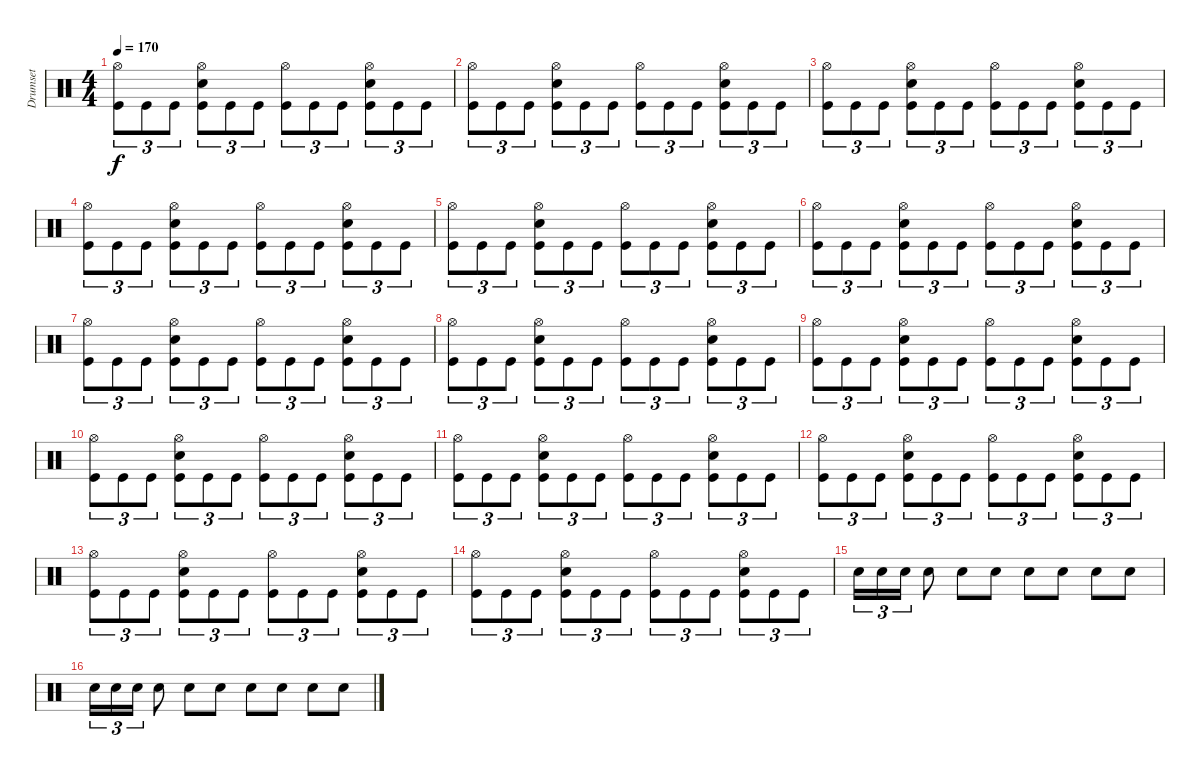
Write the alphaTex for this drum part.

\track ("Drumset" "Drumset") {instrument percussion}
\staff {score}
\articulation defaults
\ts (4 4)
\tempo 170
\clef neutral
\ks c
("Hi-Hat (open)" "Kick (hit)").8{tu (3 2) dy f} "Kick (hit)".8{tu (3 2)} "Kick (hit)".8{tu (3 2)} ("Hi-Hat (open)" "Snare (hit) 2" "Kick (hit)").8{tu (3 2)} "Kick (hit)".8{tu (3 2)} "Kick (hit)".8{tu (3 2)} ("Hi-Hat (open)" "Kick (hit)").8{tu (3 2)} "Kick (hit)".8{tu (3 2)} "Kick (hit)".8{tu (3 2)} ("Hi-Hat (open)" "Snare (hit) 2" "Kick (hit)").8{tu (3 2)} "Kick (hit)".8{tu (3 2)} "Kick (hit)".8{tu (3 2)} |
("Hi-Hat (open)" "Kick (hit)").8{tu (3 2)} "Kick (hit)".8{tu (3 2)} "Kick (hit)".8{tu (3 2)} ("Hi-Hat (open)" "Snare (hit) 2" "Kick (hit)").8{tu (3 2)} "Kick (hit)".8{tu (3 2)} "Kick (hit)".8{tu (3 2)} ("Hi-Hat (open)" "Kick (hit)").8{tu (3 2)} "Kick (hit)".8{tu (3 2)} "Kick (hit)".8{tu (3 2)} ("Hi-Hat (open)" "Snare (hit) 2" "Kick (hit)").8{tu (3 2)} "Kick (hit)".8{tu (3 2)} "Kick (hit)".8{tu (3 2)} |
("Hi-Hat (open)" "Kick (hit)").8{tu (3 2)} "Kick (hit)".8{tu (3 2)} "Kick (hit)".8{tu (3 2)} ("Hi-Hat (open)" "Snare (hit) 2" "Kick (hit)").8{tu (3 2)} "Kick (hit)".8{tu (3 2)} "Kick (hit)".8{tu (3 2)} ("Hi-Hat (open)" "Kick (hit)").8{tu (3 2)} "Kick (hit)".8{tu (3 2)} "Kick (hit)".8{tu (3 2)} ("Hi-Hat (open)" "Snare (hit) 2" "Kick (hit)").8{tu (3 2)} "Kick (hit)".8{tu (3 2)} "Kick (hit)".8{tu (3 2)} |
("Hi-Hat (open)" "Kick (hit)").8{tu (3 2)} "Kick (hit)".8{tu (3 2)} "Kick (hit)".8{tu (3 2)} ("Hi-Hat (open)" "Snare (hit) 2" "Kick (hit)").8{tu (3 2)} "Kick (hit)".8{tu (3 2)} "Kick (hit)".8{tu (3 2)} ("Hi-Hat (open)" "Kick (hit)").8{tu (3 2)} "Kick (hit)".8{tu (3 2)} "Kick (hit)".8{tu (3 2)} ("Hi-Hat (open)" "Snare (hit) 2" "Kick (hit)").8{tu (3 2)} "Kick (hit)".8{tu (3 2)} "Kick (hit)".8{tu (3 2)} |
("Hi-Hat (open)" "Kick (hit)").8{tu (3 2)} "Kick (hit)".8{tu (3 2)} "Kick (hit)".8{tu (3 2)} ("Hi-Hat (open)" "Snare (hit) 2" "Kick (hit)").8{tu (3 2)} "Kick (hit)".8{tu (3 2)} "Kick (hit)".8{tu (3 2)} ("Hi-Hat (open)" "Kick (hit)").8{tu (3 2)} "Kick (hit)".8{tu (3 2)} "Kick (hit)".8{tu (3 2)} ("Hi-Hat (open)" "Snare (hit) 2" "Kick (hit)").8{tu (3 2)} "Kick (hit)".8{tu (3 2)} "Kick (hit)".8{tu (3 2)} |
("Hi-Hat (open)" "Kick (hit)").8{tu (3 2)} "Kick (hit)".8{tu (3 2)} "Kick (hit)".8{tu (3 2)} ("Hi-Hat (open)" "Snare (hit) 2" "Kick (hit)").8{tu (3 2)} "Kick (hit)".8{tu (3 2)} "Kick (hit)".8{tu (3 2)} ("Hi-Hat (open)" "Kick (hit)").8{tu (3 2)} "Kick (hit)".8{tu (3 2)} "Kick (hit)".8{tu (3 2)} ("Hi-Hat (open)" "Snare (hit) 2" "Kick (hit)").8{tu (3 2)} "Kick (hit)".8{tu (3 2)} "Kick (hit)".8{tu (3 2)} |
("Hi-Hat (open)" "Kick (hit)").8{tu (3 2)} "Kick (hit)".8{tu (3 2)} "Kick (hit)".8{tu (3 2)} ("Hi-Hat (open)" "Snare (hit) 2" "Kick (hit)").8{tu (3 2)} "Kick (hit)".8{tu (3 2)} "Kick (hit)".8{tu (3 2)} ("Hi-Hat (open)" "Kick (hit)").8{tu (3 2)} "Kick (hit)".8{tu (3 2)} "Kick (hit)".8{tu (3 2)} ("Hi-Hat (open)" "Snare (hit) 2" "Kick (hit)").8{tu (3 2)} "Kick (hit)".8{tu (3 2)} "Kick (hit)".8{tu (3 2)} |
("Hi-Hat (open)" "Kick (hit)").8{tu (3 2)} "Kick (hit)".8{tu (3 2)} "Kick (hit)".8{tu (3 2)} ("Hi-Hat (open)" "Snare (hit) 2" "Kick (hit)").8{tu (3 2)} "Kick (hit)".8{tu (3 2)} "Kick (hit)".8{tu (3 2)} ("Hi-Hat (open)" "Kick (hit)").8{tu (3 2)} "Kick (hit)".8{tu (3 2)} "Kick (hit)".8{tu (3 2)} ("Hi-Hat (open)" "Snare (hit) 2" "Kick (hit)").8{tu (3 2)} "Kick (hit)".8{tu (3 2)} "Kick (hit)".8{tu (3 2)} |
("Hi-Hat (open)" "Kick (hit)").8{tu (3 2)} "Kick (hit)".8{tu (3 2)} "Kick (hit)".8{tu (3 2)} ("Hi-Hat (open)" "Snare (hit) 2" "Kick (hit)").8{tu (3 2)} "Kick (hit)".8{tu (3 2)} "Kick (hit)".8{tu (3 2)} ("Hi-Hat (open)" "Kick (hit)").8{tu (3 2)} "Kick (hit)".8{tu (3 2)} "Kick (hit)".8{tu (3 2)} ("Hi-Hat (open)" "Snare (hit) 2" "Kick (hit)").8{tu (3 2)} "Kick (hit)".8{tu (3 2)} "Kick (hit)".8{tu (3 2)} |
("Hi-Hat (open)" "Kick (hit)").8{tu (3 2)} "Kick (hit)".8{tu (3 2)} "Kick (hit)".8{tu (3 2)} ("Hi-Hat (open)" "Snare (hit) 2" "Kick (hit)").8{tu (3 2)} "Kick (hit)".8{tu (3 2)} "Kick (hit)".8{tu (3 2)} ("Hi-Hat (open)" "Kick (hit)").8{tu (3 2)} "Kick (hit)".8{tu (3 2)} "Kick (hit)".8{tu (3 2)} ("Hi-Hat (open)" "Snare (hit) 2" "Kick (hit)").8{tu (3 2)} "Kick (hit)".8{tu (3 2)} "Kick (hit)".8{tu (3 2)} |
("Hi-Hat (open)" "Kick (hit)").8{tu (3 2)} "Kick (hit)".8{tu (3 2)} "Kick (hit)".8{tu (3 2)} ("Hi-Hat (open)" "Snare (hit) 2" "Kick (hit)").8{tu (3 2)} "Kick (hit)".8{tu (3 2)} "Kick (hit)".8{tu (3 2)} ("Hi-Hat (open)" "Kick (hit)").8{tu (3 2)} "Kick (hit)".8{tu (3 2)} "Kick (hit)".8{tu (3 2)} ("Hi-Hat (open)" "Snare (hit) 2" "Kick (hit)").8{tu (3 2)} "Kick (hit)".8{tu (3 2)} "Kick (hit)".8{tu (3 2)} |
("Hi-Hat (open)" "Kick (hit)").8{tu (3 2)} "Kick (hit)".8{tu (3 2)} "Kick (hit)".8{tu (3 2)} ("Hi-Hat (open)" "Snare (hit) 2" "Kick (hit)").8{tu (3 2)} "Kick (hit)".8{tu (3 2)} "Kick (hit)".8{tu (3 2)} ("Hi-Hat (open)" "Kick (hit)").8{tu (3 2)} "Kick (hit)".8{tu (3 2)} "Kick (hit)".8{tu (3 2)} ("Hi-Hat (open)" "Snare (hit) 2" "Kick (hit)").8{tu (3 2)} "Kick (hit)".8{tu (3 2)} "Kick (hit)".8{tu (3 2)} |
("Hi-Hat (open)" "Kick (hit)").8{tu (3 2)} "Kick (hit)".8{tu (3 2)} "Kick (hit)".8{tu (3 2)} ("Hi-Hat (open)" "Snare (hit) 2" "Kick (hit)").8{tu (3 2)} "Kick (hit)".8{tu (3 2)} "Kick (hit)".8{tu (3 2)} ("Hi-Hat (open)" "Kick (hit)").8{tu (3 2)} "Kick (hit)".8{tu (3 2)} "Kick (hit)".8{tu (3 2)} ("Hi-Hat (open)" "Snare (hit) 2" "Kick (hit)").8{tu (3 2)} "Kick (hit)".8{tu (3 2)} "Kick (hit)".8{tu (3 2)} |
("Hi-Hat (open)" "Kick (hit)").8{tu (3 2)} "Kick (hit)".8{tu (3 2)} "Kick (hit)".8{tu (3 2)} ("Hi-Hat (open)" "Snare (hit) 2" "Kick (hit)").8{tu (3 2)} "Kick (hit)".8{tu (3 2)} "Kick (hit)".8{tu (3 2)} ("Hi-Hat (open)" "Kick (hit)").8{tu (3 2)} "Kick (hit)".8{tu (3 2)} "Kick (hit)".8{tu (3 2)} ("Hi-Hat (open)" "Snare (hit) 2" "Kick (hit)").8{tu (3 2)} "Kick (hit)".8{tu (3 2)} "Kick (hit)".8{tu (3 2)} |
"Snare (hit) 2".16{tu (3 2)} "Snare (hit) 2".16{tu (3 2)} "Snare (hit) 2".16{tu (3 2)} "Snare (hit) 2".8 "Snare (hit) 2".8 "Snare (hit) 2".8 "Snare (hit) 2".8 "Snare (hit) 2".8 "Snare (hit) 2".8 "Snare (hit) 2".8 |
"Snare (hit) 2".16{tu (3 2)} "Snare (hit) 2".16{tu (3 2)} "Snare (hit) 2".16{tu (3 2)} "Snare (hit) 2".8 "Snare (hit) 2".8 "Snare (hit) 2".8 "Snare (hit) 2".8 "Snare (hit) 2".8 "Snare (hit) 2".8 "Snare (hit) 2".8
